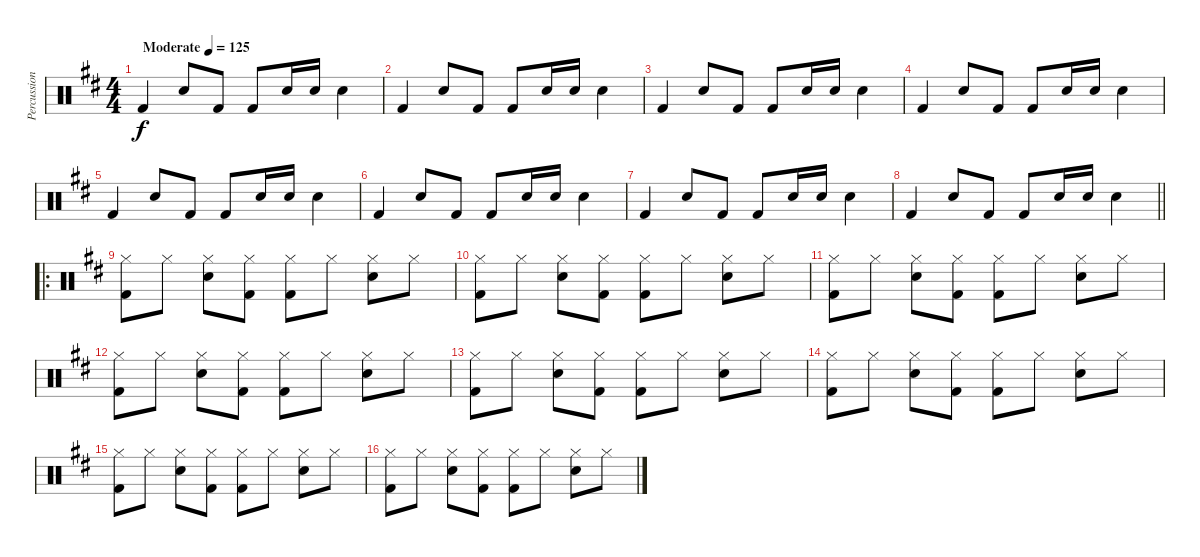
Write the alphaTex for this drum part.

\track ("Percussion" "Percussion") {instrument percussion}
\staff {score}
\articulation defaults
\ts (4 4)
\tempo (125 "Moderate")
\clef neutral
\ks d "Kick (hit) 2".4{dy f} "Snare (hit) 2".8 "Kick (hit) 2".8 "Kick (hit) 2".8 "Snare (hit) 2".16 "Snare (hit) 2".16 "Snare (hit) 2".4
|
"Kick (hit) 2".4 "Snare (hit) 2".8 "Kick (hit) 2".8 "Kick (hit) 2".8 "Snare (hit) 2".16 "Snare (hit) 2".16 "Snare (hit) 2".4 |
"Kick (hit) 2".4 "Snare (hit) 2".8 "Kick (hit) 2".8 "Kick (hit) 2".8 "Snare (hit) 2".16 "Snare (hit) 2".16 "Snare (hit) 2".4 |
"Kick (hit) 2".4 "Snare (hit) 2".8 "Kick (hit) 2".8 "Kick (hit) 2".8 "Snare (hit) 2".16 "Snare (hit) 2".16 "Snare (hit) 2".4 |
"Kick (hit) 2".4 "Snare (hit) 2".8 "Kick (hit) 2".8 "Kick (hit) 2".8 "Snare (hit) 2".16 "Snare (hit) 2".16 "Snare (hit) 2".4 |
"Kick (hit) 2".4 "Snare (hit) 2".8 "Kick (hit) 2".8 "Kick (hit) 2".8 "Snare (hit) 2".16 "Snare (hit) 2".16 "Snare (hit) 2".4 |
"Kick (hit) 2".4 "Snare (hit) 2".8 "Kick (hit) 2".8 "Kick (hit) 2".8 "Snare (hit) 2".16 "Snare (hit) 2".16 "Snare (hit) 2".4 |
\barLineRight lightlight "Kick (hit) 2".4 "Snare (hit) 2".8 "Kick (hit) 2".8 "Kick (hit) 2".8 "Snare (hit) 2".16 "Snare (hit) 2".16 "Snare (hit) 2".4
|
\ro
("Hi-Hat (closed)" "Kick (hit) 2").8 "Hi-Hat (closed)".8 ("Hi-Hat (closed)" "Snare (hit) 2").8 ("Hi-Hat (closed)" "Kick (hit) 2").8 ("Hi-Hat (closed)" "Kick (hit) 2").8 "Hi-Hat (closed)".8 ("Hi-Hat (closed)" "Snare (hit) 2").8 "Hi-Hat (closed)".8 |
("Hi-Hat (closed)" "Kick (hit) 2").8 "Hi-Hat (closed)".8 ("Hi-Hat (closed)" "Snare (hit) 2").8 ("Hi-Hat (closed)" "Kick (hit) 2").8 ("Hi-Hat (closed)" "Kick (hit) 2").8 "Hi-Hat (closed)".8 ("Hi-Hat (closed)" "Snare (hit) 2").8 "Hi-Hat (closed)".8 |
("Hi-Hat (closed)" "Kick (hit) 2").8 "Hi-Hat (closed)".8 ("Hi-Hat (closed)" "Snare (hit) 2").8 ("Hi-Hat (closed)" "Kick (hit) 2").8 ("Hi-Hat (closed)" "Kick (hit) 2").8 "Hi-Hat (closed)".8 ("Hi-Hat (closed)" "Snare (hit) 2").8 "Hi-Hat (closed)".8 |
("Hi-Hat (closed)" "Kick (hit) 2").8 "Hi-Hat (closed)".8 ("Hi-Hat (closed)" "Snare (hit) 2").8 ("Hi-Hat (closed)" "Kick (hit) 2").8 ("Hi-Hat (closed)" "Kick (hit) 2").8 "Hi-Hat (closed)".8 ("Hi-Hat (closed)" "Snare (hit) 2").8 "Hi-Hat (closed)".8 |
("Hi-Hat (closed)" "Kick (hit) 2").8 "Hi-Hat (closed)".8 ("Hi-Hat (closed)" "Snare (hit) 2").8 ("Hi-Hat (closed)" "Kick (hit) 2").8 ("Hi-Hat (closed)" "Kick (hit) 2").8 "Hi-Hat (closed)".8 ("Hi-Hat (closed)" "Snare (hit) 2").8 "Hi-Hat (closed)".8 |
("Hi-Hat (closed)" "Kick (hit) 2").8 "Hi-Hat (closed)".8 ("Hi-Hat (closed)" "Snare (hit) 2").8 ("Hi-Hat (closed)" "Kick (hit) 2").8 ("Hi-Hat (closed)" "Kick (hit) 2").8 "Hi-Hat (closed)".8 ("Hi-Hat (closed)" "Snare (hit) 2").8 "Hi-Hat (closed)".8 |
("Hi-Hat (closed)" "Kick (hit) 2").8 "Hi-Hat (closed)".8 ("Hi-Hat (closed)" "Snare (hit) 2").8 ("Hi-Hat (closed)" "Kick (hit) 2").8 ("Hi-Hat (closed)" "Kick (hit) 2").8 "Hi-Hat (closed)".8 ("Hi-Hat (closed)" "Snare (hit) 2").8 "Hi-Hat (closed)".8 |
("Hi-Hat (closed)" "Kick (hit) 2").8 "Hi-Hat (closed)".8 ("Hi-Hat (closed)" "Snare (hit) 2").8 ("Hi-Hat (closed)" "Kick (hit) 2").8 ("Hi-Hat (closed)" "Kick (hit) 2").8 "Hi-Hat (closed)".8 ("Hi-Hat (closed)" "Snare (hit) 2").8 "Hi-Hat (closed)".8
